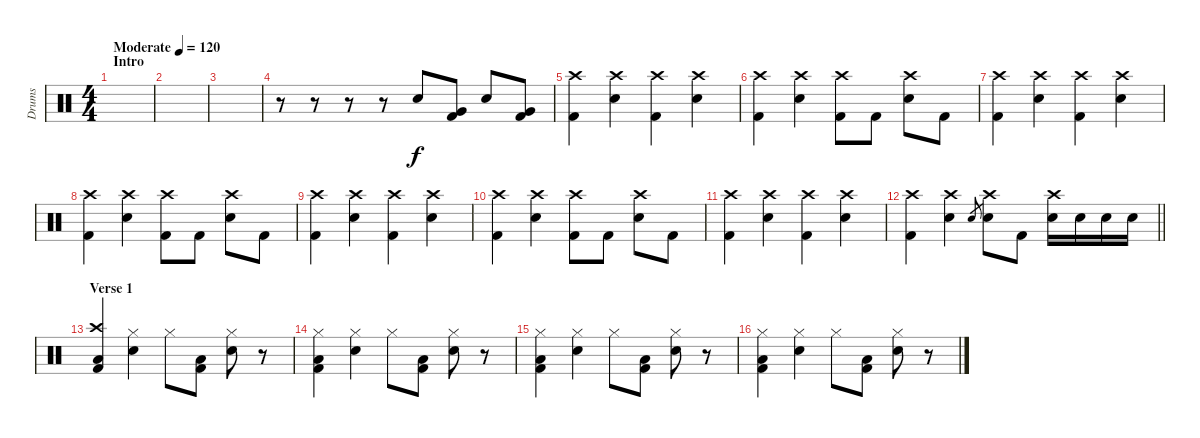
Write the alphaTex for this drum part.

\track ("Drums" "Drums") {instrument percussion}
\staff {score}
\articulation defaults
\ts (4 4)
\section ("" "Intro")
\tempo (120 "Moderate")
\clef neutral
\ks c
|
|
|
r.8 r.8 r.8 r.8 "Electric Snare (hit)".8 ("Very Low Tom (hit)" "Kick (hit) 2").8 "Electric Snare (hit)".8 ("Very Low Tom (hit)" "Kick (hit) 2").8 |
("Crash high (hit)" "Kick (hit) 2").4 ("Crash high (hit)" "Electric Snare (hit)").4 ("Crash high (hit)" "Kick (hit) 2").4 ("Crash high (hit)" "Electric Snare (hit)").4 |
("Crash high (hit)" "Kick (hit) 2").4 ("Crash high (hit)" "Electric Snare (hit)").4 ("Crash high (hit)" "Kick (hit) 2").8 "Kick (hit) 2".8 ("Crash high (hit)" "Electric Snare (hit)").8 "Kick (hit) 2".8 |
("Crash high (hit)" "Kick (hit) 2").4 ("Crash high (hit)" "Electric Snare (hit)").4 ("Crash high (hit)" "Kick (hit) 2").4 ("Crash high (hit)" "Electric Snare (hit)").4 |
("Crash high (hit)" "Kick (hit) 2").4 ("Crash high (hit)" "Electric Snare (hit)").4 ("Crash high (hit)" "Kick (hit) 2").8 "Kick (hit) 2".8 ("Crash high (hit)" "Electric Snare (hit)").8 "Kick (hit) 2".8 |
("Crash high (hit)" "Kick (hit) 2").4 ("Crash high (hit)" "Electric Snare (hit)").4 ("Crash high (hit)" "Kick (hit) 2").4 ("Crash high (hit)" "Electric Snare (hit)").4 |
("Crash high (hit)" "Kick (hit) 2").4 ("Crash high (hit)" "Electric Snare (hit)").4 ("Crash high (hit)" "Kick (hit) 2").8 "Kick (hit) 2".8 ("Crash high (hit)" "Electric Snare (hit)").8 "Kick (hit) 2".8 |
("Crash high (hit)" "Kick (hit) 2").4 ("Crash high (hit)" "Electric Snare (hit)").4 ("Crash high (hit)" "Kick (hit) 2").4 ("Crash high (hit)" "Electric Snare (hit)").4 |
\barLineRight lightlight
("Crash high (hit)" "Kick (hit) 2").4 ("Crash high (hit)" "Electric Snare (hit)").4 "Electric Snare (hit)".8{gr} ("Crash high (hit)" "Electric Snare (hit)").8 "Kick (hit) 2".8 ("Crash high (hit)" "Electric Snare (hit)").16 "Electric Snare (hit)".16 "Electric Snare (hit)".16 "Electric Snare (hit)".16 |
\section ("" "Verse 1")
("Crash high (hit)" "Low Floor Tom (hit)" "Kick (hit) 2").4 ("Hi-Hat (closed)" "Electric Snare (hit)").4 "Hi-Hat (closed)".8 ("Low Floor Tom (hit)" "Kick (hit) 2").8 ("Hi-Hat (closed)" "Electric Snare (hit)").8 r.8 |
("Hi-Hat (closed)" "Low Floor Tom (hit)" "Kick (hit) 2").4 ("Hi-Hat (closed)" "Electric Snare (hit)").4 "Hi-Hat (closed)".8 ("Low Floor Tom (hit)" "Kick (hit) 2").8 ("Hi-Hat (closed)" "Electric Snare (hit)").8 r.8 |
("Hi-Hat (closed)" "Low Floor Tom (hit)" "Kick (hit) 2").4 ("Hi-Hat (closed)" "Electric Snare (hit)").4 "Hi-Hat (closed)".8 ("Low Floor Tom (hit)" "Kick (hit) 2").8 ("Hi-Hat (closed)" "Electric Snare (hit)").8 r.8 |
("Hi-Hat (closed)" "Low Floor Tom (hit)" "Kick (hit) 2").4 ("Hi-Hat (closed)" "Electric Snare (hit)").4 "Hi-Hat (closed)".8 ("Low Floor Tom (hit)" "Kick (hit) 2").8 ("Hi-Hat (closed)" "Electric Snare (hit)").8 r.8
